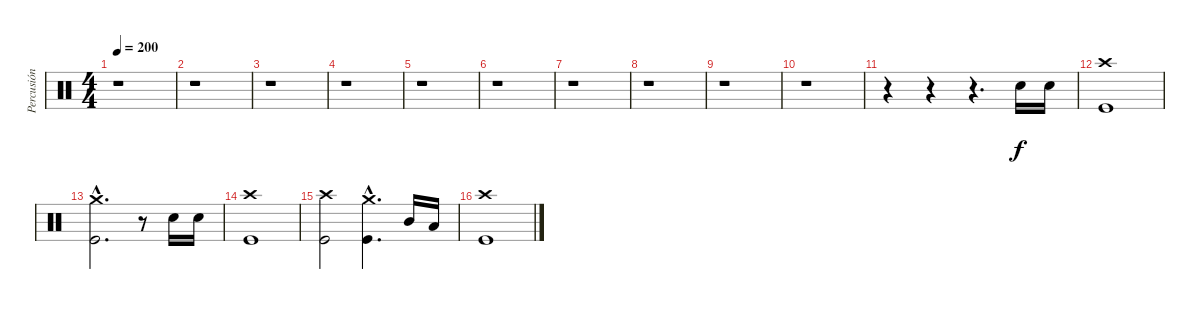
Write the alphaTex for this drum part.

\track ("Percusión" "Percusión") {instrument percussion}
\staff {score}
\articulation defaults
\ts (4 4)
\tempo 200
\tempo 160
\tempo 200
\clef neutral
\ks c
r.1{dy f} |
r.1 |
r.1 |
r.1 |
r.1 |
r.1 |
r.1 |
r.1 |
r.1 |
r.1 |
r.4 r.4 r.4{d} "Electric Snare (hit)".16 "Electric Snare (hit)".16 |
("Crash high (hit)" "Kick (hit)").1 |
("Crash medium (hit)"{hac} "Kick (hit)"{hac}).2{d} r.8 "Electric Snare (hit)".16 "Electric Snare (hit)".16 |
("Crash high (hit)" "Kick (hit)").1 |
("Crash high (hit)" "Kick (hit)").2 ("Crash medium (hit)"{hac} "Kick (hit)"{hac}).4{d} "Mid Tom (hit)".16 "Low Tom (hit)".16 |
("Crash high (hit)" "Kick (hit)").1
